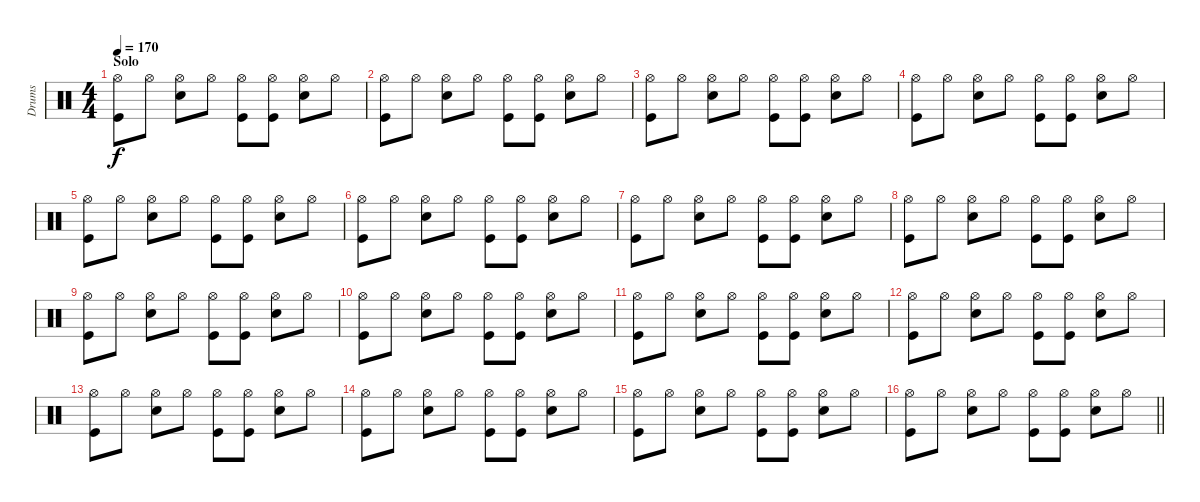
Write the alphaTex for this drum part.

\track ("Drums" "Drums") {instrument percussion}
\staff {score}
\articulation defaults
\ts (4 4)
\section ("" "Solo")
\tempo 170
\clef neutral
\ks c
("Hi-Hat (open)" "Kick (hit)").8{dy f} "Hi-Hat (open)".8 ("Hi-Hat (open)" "Snare (hit) 2").8 "Hi-Hat (open)".8 ("Hi-Hat (open)" "Kick (hit)").8 ("Hi-Hat (open)" "Kick (hit)").8 ("Hi-Hat (open)" "Snare (hit) 2").8 "Hi-Hat (open)".8 |
("Hi-Hat (open)" "Kick (hit)").8 "Hi-Hat (open)".8 ("Hi-Hat (open)" "Snare (hit) 2").8 "Hi-Hat (open)".8 ("Hi-Hat (open)" "Kick (hit)").8 ("Hi-Hat (open)" "Kick (hit)").8 ("Hi-Hat (open)" "Snare (hit) 2").8 "Hi-Hat (open)".8 |
("Hi-Hat (open)" "Kick (hit)").8 "Hi-Hat (open)".8 ("Hi-Hat (open)" "Snare (hit) 2").8 "Hi-Hat (open)".8 ("Hi-Hat (open)" "Kick (hit)").8 ("Hi-Hat (open)" "Kick (hit)").8 ("Hi-Hat (open)" "Snare (hit) 2").8 "Hi-Hat (open)".8 |
("Hi-Hat (open)" "Kick (hit)").8 "Hi-Hat (open)".8 ("Hi-Hat (open)" "Snare (hit) 2").8 "Hi-Hat (open)".8 ("Hi-Hat (open)" "Kick (hit)").8 ("Hi-Hat (open)" "Kick (hit)").8 ("Hi-Hat (open)" "Snare (hit) 2").8 "Hi-Hat (open)".8 |
("Hi-Hat (open)" "Kick (hit)").8 "Hi-Hat (open)".8 ("Hi-Hat (open)" "Snare (hit) 2").8 "Hi-Hat (open)".8 ("Hi-Hat (open)" "Kick (hit)").8 ("Hi-Hat (open)" "Kick (hit)").8 ("Hi-Hat (open)" "Snare (hit) 2").8 "Hi-Hat (open)".8 |
("Hi-Hat (open)" "Kick (hit)").8 "Hi-Hat (open)".8 ("Hi-Hat (open)" "Snare (hit) 2").8 "Hi-Hat (open)".8 ("Hi-Hat (open)" "Kick (hit)").8 ("Hi-Hat (open)" "Kick (hit)").8 ("Hi-Hat (open)" "Snare (hit) 2").8 "Hi-Hat (open)".8 |
("Hi-Hat (open)" "Kick (hit)").8 "Hi-Hat (open)".8 ("Hi-Hat (open)" "Snare (hit) 2").8 "Hi-Hat (open)".8 ("Hi-Hat (open)" "Kick (hit)").8 ("Hi-Hat (open)" "Kick (hit)").8 ("Hi-Hat (open)" "Snare (hit) 2").8 "Hi-Hat (open)".8 |
("Hi-Hat (open)" "Kick (hit)").8 "Hi-Hat (open)".8 ("Hi-Hat (open)" "Snare (hit) 2").8 "Hi-Hat (open)".8 ("Hi-Hat (open)" "Kick (hit)").8 ("Hi-Hat (open)" "Kick (hit)").8 ("Hi-Hat (open)" "Snare (hit) 2").8 "Hi-Hat (open)".8 |
("Hi-Hat (open)" "Kick (hit)").8 "Hi-Hat (open)".8 ("Hi-Hat (open)" "Snare (hit) 2").8 "Hi-Hat (open)".8 ("Hi-Hat (open)" "Kick (hit)").8 ("Hi-Hat (open)" "Kick (hit)").8 ("Hi-Hat (open)" "Snare (hit) 2").8 "Hi-Hat (open)".8 |
("Hi-Hat (open)" "Kick (hit)").8 "Hi-Hat (open)".8 ("Hi-Hat (open)" "Snare (hit) 2").8 "Hi-Hat (open)".8 ("Hi-Hat (open)" "Kick (hit)").8 ("Hi-Hat (open)" "Kick (hit)").8 ("Hi-Hat (open)" "Snare (hit) 2").8 "Hi-Hat (open)".8 |
("Hi-Hat (open)" "Kick (hit)").8 "Hi-Hat (open)".8 ("Hi-Hat (open)" "Snare (hit) 2").8 "Hi-Hat (open)".8 ("Hi-Hat (open)" "Kick (hit)").8 ("Hi-Hat (open)" "Kick (hit)").8 ("Hi-Hat (open)" "Snare (hit) 2").8 "Hi-Hat (open)".8 |
("Hi-Hat (open)" "Kick (hit)").8 "Hi-Hat (open)".8 ("Hi-Hat (open)" "Snare (hit) 2").8 "Hi-Hat (open)".8 ("Hi-Hat (open)" "Kick (hit)").8 ("Hi-Hat (open)" "Kick (hit)").8 ("Hi-Hat (open)" "Snare (hit) 2").8 "Hi-Hat (open)".8 |
("Hi-Hat (open)" "Kick (hit)").8 "Hi-Hat (open)".8 ("Hi-Hat (open)" "Snare (hit) 2").8 "Hi-Hat (open)".8 ("Hi-Hat (open)" "Kick (hit)").8 ("Hi-Hat (open)" "Kick (hit)").8 ("Hi-Hat (open)" "Snare (hit) 2").8 "Hi-Hat (open)".8 |
("Hi-Hat (open)" "Kick (hit)").8 "Hi-Hat (open)".8 ("Hi-Hat (open)" "Snare (hit) 2").8 "Hi-Hat (open)".8 ("Hi-Hat (open)" "Kick (hit)").8 ("Hi-Hat (open)" "Kick (hit)").8 ("Hi-Hat (open)" "Snare (hit) 2").8 "Hi-Hat (open)".8 |
("Hi-Hat (open)" "Kick (hit)").8 "Hi-Hat (open)".8 ("Hi-Hat (open)" "Snare (hit) 2").8 "Hi-Hat (open)".8 ("Hi-Hat (open)" "Kick (hit)").8 ("Hi-Hat (open)" "Kick (hit)").8 ("Hi-Hat (open)" "Snare (hit) 2").8 "Hi-Hat (open)".8 |
\barLineRight lightlight
("Hi-Hat (open)" "Kick (hit)").8 "Hi-Hat (open)".8 ("Hi-Hat (open)" "Snare (hit) 2").8 "Hi-Hat (open)".8 ("Hi-Hat (open)" "Kick (hit)").8 ("Hi-Hat (open)" "Kick (hit)").8 ("Hi-Hat (open)" "Snare (hit) 2").8 "Hi-Hat (open)".8
